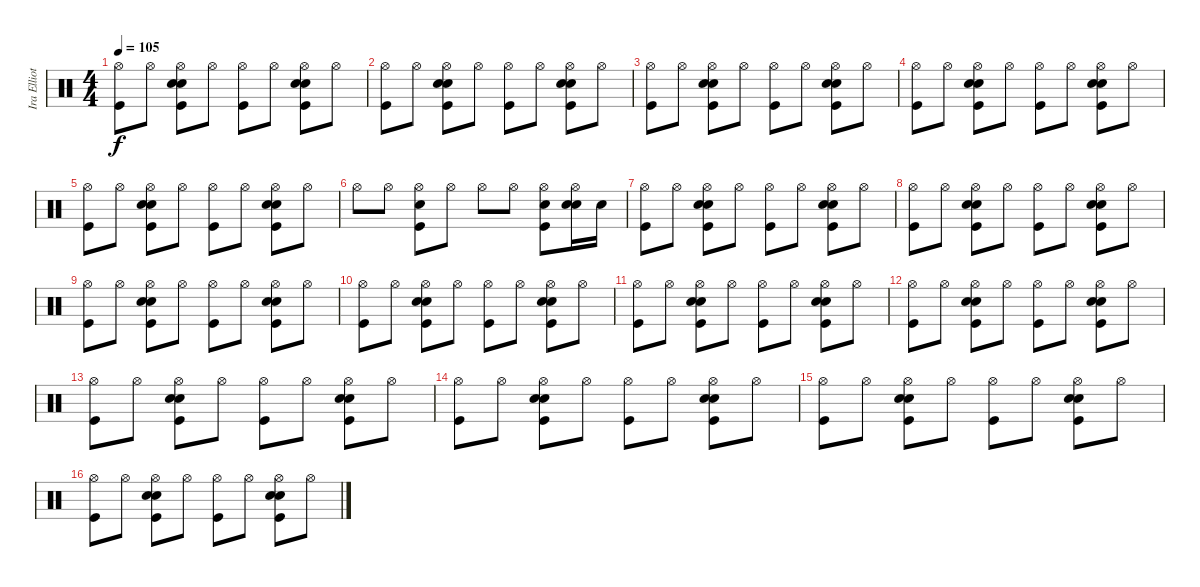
\track ("Ira Elliot" "Ira Elliot") {instrument percussion}
\staff {score}
\articulation defaults
\ts (4 4)
\tempo 105
\clef neutral
\ks c
("Hi-Hat (open)" "Kick (hit)").8{dy f} "Hi-Hat (open)".8 ("Electric Snare (hit)" "Hi-Hat (open)" "Snare (hit) 2" "Kick (hit)").8 "Hi-Hat (open)".8 ("Hi-Hat (open)" "Kick (hit)").8 "Hi-Hat (open)".8 ("Electric Snare (hit)" "Hi-Hat (open)" "Snare (hit) 2" "Kick (hit)").8 "Hi-Hat (open)".8 |
("Hi-Hat (open)" "Kick (hit)").8 "Hi-Hat (open)".8 ("Electric Snare (hit)" "Hi-Hat (open)" "Snare (hit) 2" "Kick (hit)").8 "Hi-Hat (open)".8 ("Hi-Hat (open)" "Kick (hit)").8 "Hi-Hat (open)".8 ("Electric Snare (hit)" "Hi-Hat (open)" "Snare (hit) 2" "Kick (hit)").8 "Hi-Hat (open)".8 |
("Hi-Hat (open)" "Kick (hit)").8 "Hi-Hat (open)".8 ("Electric Snare (hit)" "Hi-Hat (open)" "Snare (hit) 2" "Kick (hit)").8 "Hi-Hat (open)".8 ("Hi-Hat (open)" "Kick (hit)").8 "Hi-Hat (open)".8 ("Electric Snare (hit)" "Hi-Hat (open)" "Snare (hit) 2" "Kick (hit)").8 "Hi-Hat (open)".8 |
("Hi-Hat (open)" "Kick (hit)").8 "Hi-Hat (open)".8 ("Electric Snare (hit)" "Hi-Hat (open)" "Snare (hit) 2" "Kick (hit)").8 "Hi-Hat (open)".8 ("Hi-Hat (open)" "Kick (hit)").8 "Hi-Hat (open)".8 ("Electric Snare (hit)" "Hi-Hat (open)" "Snare (hit) 2" "Kick (hit)").8 "Hi-Hat (open)".8 |
("Hi-Hat (open)" "Kick (hit)").8 "Hi-Hat (open)".8 ("Electric Snare (hit)" "Hi-Hat (open)" "Snare (hit) 2" "Kick (hit)").8 "Hi-Hat (open)".8 ("Hi-Hat (open)" "Kick (hit)").8 "Hi-Hat (open)".8 ("Electric Snare (hit)" "Hi-Hat (open)" "Snare (hit) 2" "Kick (hit)").8 "Hi-Hat (open)".8 |
"Hi-Hat (open)".8 "Hi-Hat (open)".8 ("Electric Snare (hit)" "Kick (hit)" "Hi-Hat (open)").8 "Hi-Hat (open)".8 "Hi-Hat (open)".8 "Hi-Hat (open)".8 ("Electric Snare (hit)" "Kick (hit)" "Hi-Hat (open)").8 ("Electric Snare (hit)" "Hi-Hat (open)" "Snare (hit) 2").16 "Snare (hit) 2".16 |
("Hi-Hat (open)" "Kick (hit)").8 "Hi-Hat (open)".8 ("Electric Snare (hit)" "Hi-Hat (open)" "Snare (hit) 2" "Kick (hit)").8 "Hi-Hat (open)".8 ("Hi-Hat (open)" "Kick (hit)").8 "Hi-Hat (open)".8 ("Electric Snare (hit)" "Hi-Hat (open)" "Snare (hit) 2" "Kick (hit)").8 "Hi-Hat (open)".8 |
("Hi-Hat (open)" "Kick (hit)").8 "Hi-Hat (open)".8 ("Electric Snare (hit)" "Hi-Hat (open)" "Snare (hit) 2" "Kick (hit)").8 "Hi-Hat (open)".8 ("Hi-Hat (open)" "Kick (hit)").8 "Hi-Hat (open)".8 ("Electric Snare (hit)" "Hi-Hat (open)" "Snare (hit) 2" "Kick (hit)").8 "Hi-Hat (open)".8 |
("Hi-Hat (open)" "Kick (hit)").8 "Hi-Hat (open)".8 ("Electric Snare (hit)" "Hi-Hat (open)" "Snare (hit) 2" "Kick (hit)").8 "Hi-Hat (open)".8 ("Hi-Hat (open)" "Kick (hit)").8 "Hi-Hat (open)".8 ("Electric Snare (hit)" "Hi-Hat (open)" "Snare (hit) 2" "Kick (hit)").8 "Hi-Hat (open)".8 |
("Hi-Hat (open)" "Kick (hit)").8 "Hi-Hat (open)".8 ("Electric Snare (hit)" "Hi-Hat (open)" "Snare (hit) 2" "Kick (hit)").8 "Hi-Hat (open)".8 ("Hi-Hat (open)" "Kick (hit)").8 "Hi-Hat (open)".8 ("Electric Snare (hit)" "Hi-Hat (open)" "Snare (hit) 2" "Kick (hit)").8 "Hi-Hat (open)".8 |
("Hi-Hat (open)" "Kick (hit)").8 "Hi-Hat (open)".8 ("Electric Snare (hit)" "Hi-Hat (open)" "Snare (hit) 2" "Kick (hit)").8 "Hi-Hat (open)".8 ("Hi-Hat (open)" "Kick (hit)").8 "Hi-Hat (open)".8 ("Electric Snare (hit)" "Hi-Hat (open)" "Snare (hit) 2" "Kick (hit)").8 "Hi-Hat (open)".8 |
("Hi-Hat (open)" "Kick (hit)").8 "Hi-Hat (open)".8 ("Electric Snare (hit)" "Hi-Hat (open)" "Snare (hit) 2" "Kick (hit)").8 "Hi-Hat (open)".8 ("Hi-Hat (open)" "Kick (hit)").8 "Hi-Hat (open)".8 ("Electric Snare (hit)" "Hi-Hat (open)" "Snare (hit) 2" "Kick (hit)").8 "Hi-Hat (open)".8 |
("Hi-Hat (open)" "Kick (hit)").8 "Hi-Hat (open)".8 ("Electric Snare (hit)" "Hi-Hat (open)" "Snare (hit) 2" "Kick (hit)").8 "Hi-Hat (open)".8 ("Hi-Hat (open)" "Kick (hit)").8 "Hi-Hat (open)".8 ("Electric Snare (hit)" "Hi-Hat (open)" "Snare (hit) 2" "Kick (hit)").8 "Hi-Hat (open)".8 |
("Hi-Hat (open)" "Kick (hit)").8 "Hi-Hat (open)".8 ("Electric Snare (hit)" "Hi-Hat (open)" "Snare (hit) 2" "Kick (hit)").8 "Hi-Hat (open)".8 ("Hi-Hat (open)" "Kick (hit)").8 "Hi-Hat (open)".8 ("Electric Snare (hit)" "Hi-Hat (open)" "Snare (hit) 2" "Kick (hit)").8 "Hi-Hat (open)".8 |
("Hi-Hat (open)" "Kick (hit)").8 "Hi-Hat (open)".8 ("Electric Snare (hit)" "Hi-Hat (open)" "Snare (hit) 2" "Kick (hit)").8 "Hi-Hat (open)".8 ("Hi-Hat (open)" "Kick (hit)").8 "Hi-Hat (open)".8 ("Electric Snare (hit)" "Hi-Hat (open)" "Snare (hit) 2" "Kick (hit)").8 "Hi-Hat (open)".8 |
("Hi-Hat (open)" "Kick (hit)").8 "Hi-Hat (open)".8 ("Electric Snare (hit)" "Hi-Hat (open)" "Snare (hit) 2" "Kick (hit)").8 "Hi-Hat (open)".8 ("Hi-Hat (open)" "Kick (hit)").8 "Hi-Hat (open)".8 ("Electric Snare (hit)" "Hi-Hat (open)" "Snare (hit) 2" "Kick (hit)").8 "Hi-Hat (open)".8
